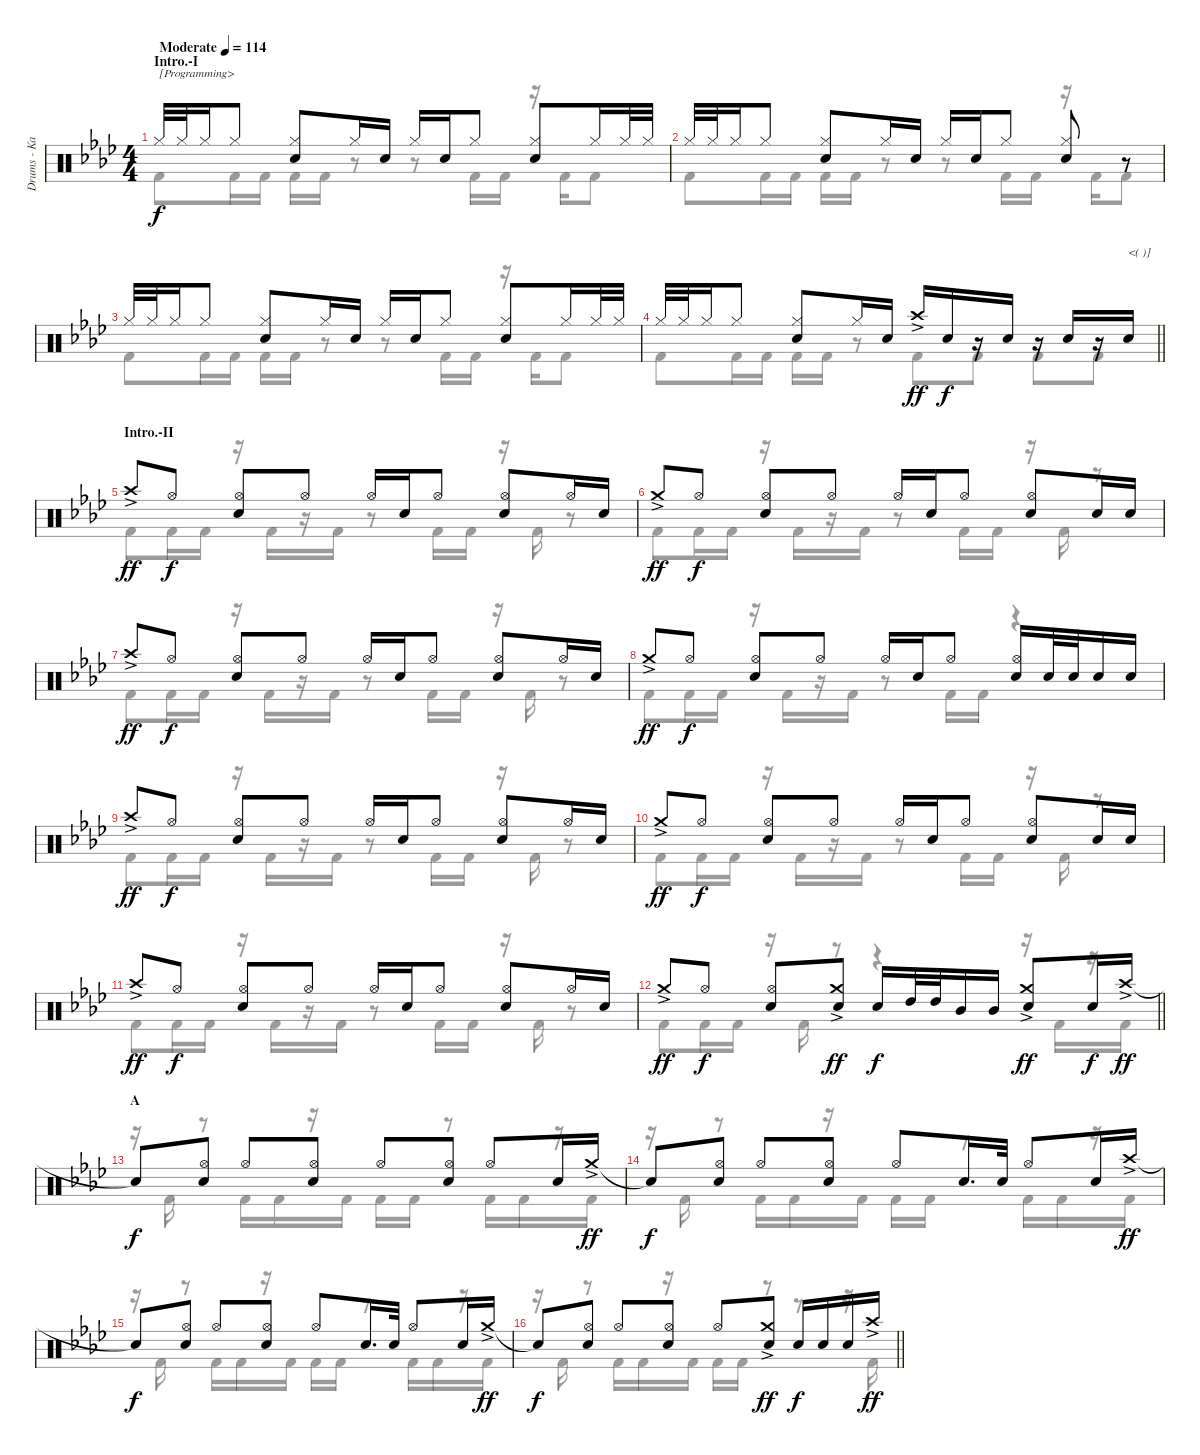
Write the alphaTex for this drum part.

\track ("Drums - Kai" "Drums - Ka") {instrument percussion}
\staff {score}
\articulation defaults
\voice
\ts (4 4)
\section ("" "Intro.-I")
\tempo (114 "Moderate")
\clef neutral
\ks ab "Hi-Hat (closed)".32{txt "[Programming>" dy f} "Hi-Hat (closed)".32 "Hi-Hat (closed)".16 "Hi-Hat (closed)".8
("Hi-Hat (closed)" "Snare (hit) 2").8 "Hi-Hat (closed)".16 "Snare (hit) 2".16 "Hi-Hat (closed)".16 "Snare (hit) 2".16 "Hi-Hat (closed)".8 ("Hi-Hat (closed)" "Snare (hit) 2").8 "Hi-Hat (closed)".16 "Hi-Hat (closed)".32 "Hi-Hat (closed)".32 |
"Hi-Hat (closed)".32 "Hi-Hat (closed)".32 "Hi-Hat (closed)".16 "Hi-Hat (closed)".8 ("Hi-Hat (closed)" "Snare (hit) 2").8 "Hi-Hat (closed)".16 "Snare (hit) 2".16 "Hi-Hat (closed)".16 "Snare (hit) 2".16 "Hi-Hat (closed)".8 ("Hi-Hat (closed)" "Snare (hit) 2").8 r.8 |
"Hi-Hat (closed)".32 "Hi-Hat (closed)".32 "Hi-Hat (closed)".16 "Hi-Hat (closed)".8 ("Hi-Hat (closed)" "Snare (hit) 2").8 "Hi-Hat (closed)".16 "Snare (hit) 2".16 "Hi-Hat (closed)".16 "Snare (hit) 2".16 "Hi-Hat (closed)".8 ("Hi-Hat (closed)" "Snare (hit) 2").8 "Hi-Hat (closed)".16 "Hi-Hat (closed)".32 "Hi-Hat (closed)".32 |
\barLineRight lightlight "Hi-Hat (closed)".32 "Hi-Hat (closed)".32 "Hi-Hat (closed)".16 "Hi-Hat (closed)".8
("Hi-Hat (closed)" "Snare (hit) 2").8 "Hi-Hat (closed)".16 "Snare (hit) 2".16 "Crash high (hit)"{ac}.16{dy ff} "Snare (hit) 2".16{dy f} r.16 "Snare (hit) 2".16 r.16 "Snare (hit) 2".16 r.16 "Snare (hit) 2".16{txt "<( )]"} |
\section ("" "Intro.-II")
"Crash high (hit)"{ac}.8{dy ff} "Hi-Hat (open)".8{dy f} ("Hi-Hat (open)" "Snare (hit) 2").8 "Hi-Hat (open)".8 "Hi-Hat (open)".16 "Snare (hit) 2".16 "Hi-Hat (open)".8 ("Hi-Hat (open)" "Snare (hit) 2").8 "Hi-Hat (open)".16 "Snare (hit) 2".16 |
"Crash medium (hit)"{ac}.8{dy ff} "Hi-Hat (open)".8{dy f} ("Hi-Hat (open)" "Snare (hit) 2").8 "Hi-Hat (open)".8 "Hi-Hat (open)".16 "Snare (hit) 2".16 "Hi-Hat (open)".8 ("Hi-Hat (open)" "Snare (hit) 2").8 "Snare (hit) 2".16 "Snare (hit) 2".16 |
"Crash high (hit)"{ac}.8{dy ff} "Hi-Hat (open)".8{dy f} ("Hi-Hat (open)" "Snare (hit) 2").8 "Hi-Hat (open)".8 "Hi-Hat (open)".16 "Snare (hit) 2".16 "Hi-Hat (open)".8 ("Hi-Hat (open)" "Snare (hit) 2").8 "Hi-Hat (open)".16 "Snare (hit) 2".16 |
"Crash medium (hit)"{ac}.8{dy ff} "Hi-Hat (open)".8{dy f} ("Hi-Hat (open)" "Snare (hit) 2").8 "Hi-Hat (open)".8 "Hi-Hat (open)".16 "Snare (hit) 2".16 "Hi-Hat (open)".8 ("Hi-Hat (open)" "Snare (hit) 2").16 "Snare (hit) 2".32 "Snare (hit) 2".32 "Snare (hit) 2".16 "Snare (hit) 2".16 |
"Crash high (hit)"{ac}.8{dy ff} "Hi-Hat (open)".8{dy f} ("Hi-Hat (open)" "Snare (hit) 2").8 "Hi-Hat (open)".8 "Hi-Hat (open)".16 "Snare (hit) 2".16 "Hi-Hat (open)".8 ("Hi-Hat (open)" "Snare (hit) 2").8 "Hi-Hat (open)".16 "Snare (hit) 2".16 |
"Crash medium (hit)"{ac}.8{dy ff} "Hi-Hat (open)".8{dy f} ("Hi-Hat (open)" "Snare (hit) 2").8 "Hi-Hat (open)".8 "Hi-Hat (open)".16 "Snare (hit) 2".16 "Hi-Hat (open)".8 ("Hi-Hat (open)" "Snare (hit) 2").8 "Snare (hit) 2".16 "Snare (hit) 2".16 |
"Crash high (hit)"{ac}.8{dy ff} "Hi-Hat (open)".8{dy f} ("Hi-Hat (open)" "Snare (hit) 2").8 "Hi-Hat (open)".8 "Hi-Hat (open)".16 "Snare (hit) 2".16 "Hi-Hat (open)".8 ("Hi-Hat (open)" "Snare (hit) 2").8 "Hi-Hat (open)".16 "Snare (hit) 2".16 |
\barLineRight lightlight "Crash medium (hit)"{ac}.8{dy ff} "Hi-Hat (open)".8{dy f}
("Hi-Hat (open)" "Snare (hit) 2").8 ("Crash medium (hit)"{ac} "Snare (hit) 2").8{dy ff} "Snare (hit) 2".16{dy f} "High Tom (hit)".32 "High Tom (hit)".32 "Mid Tom (hit)".16 "Mid Tom (hit)".16 ("Crash medium (hit)"{ac} "Snare (hit) 2").8{dy ff} "Snare (hit) 2".16{dy f} "Crash high (hit)"{ac}.16{dy ff} |
\section ("" "A")
"Snare (hit)"{t}.8{dy f} ("Hi-Hat (open)" "Snare (hit) 2").8 "Hi-Hat (open)".8 ("Hi-Hat (open)" "Snare (hit) 2").8 "Hi-Hat (open)".8 ("Hi-Hat (open)" "Snare (hit) 2").8 "Hi-Hat (open)".8 "Snare (hit) 2".16 "Crash medium (hit)"{ac}.16{dy ff} |
"Snare (hit)"{t}.8{dy f} ("Hi-Hat (open)" "Snare (hit) 2").8 "Hi-Hat (open)".8 ("Hi-Hat (open)" "Snare (hit) 2").8 "Hi-Hat (open)".8 "Snare (hit) 2".16{d} "Snare (hit) 2".32 "Hi-Hat (open)".8 "Snare (hit) 2".16 "Crash high (hit)"{ac}.16{dy ff} |
"Snare (hit)"{t}.8{dy f} ("Hi-Hat (open)" "Snare (hit) 2").8 "Hi-Hat (open)".8 ("Hi-Hat (open)" "Snare (hit) 2").8 "Hi-Hat (open)".8 "Snare (hit) 2".16{d} "Snare (hit) 2".32 "Hi-Hat (open)".8 "Snare (hit) 2".16 "Crash medium (hit)"{ac}.16{dy ff} |
\barLineRight lightlight "Snare (hit)"{t}.8{dy f}
("Hi-Hat (open)" "Snare (hit) 2").8 "Hi-Hat (open)".8 ("Hi-Hat (open)" "Snare (hit) 2").8 "Hi-Hat (open)".8 ("Crash medium (hit)"{ac} "Snare (hit) 2").8{dy ff} "Snare (hit) 2".16{dy f} "Snare (hit) 2".16 "Snare (hit) 2".16 "Crash high (hit)"{ac}.16{dy ff}
\voice
\clef neutral
\ottava regular
\simile none
\ks ab "Kick (hit) 2".8{dy f} "Kick (hit) 2".16 "Kick (hit) 2".16 "Kick (hit) 2".16 "Kick (hit) 2".16
r.8 r.8 "Kick (hit) 2".16 "Kick (hit) 2".16 r.16 "Kick (hit) 2".16 "Kick (hit) 2".8 |
"Kick (hit) 2".8 "Kick (hit) 2".16 "Kick (hit) 2".16 "Kick (hit) 2".16 "Kick (hit) 2".16 r.8 r.8 "Kick (hit) 2".16 "Kick (hit) 2".16 r.16 "Kick (hit) 2".16 "Kick (hit) 2".8 |
"Kick (hit) 2".8 "Kick (hit) 2".16 "Kick (hit) 2".16 "Kick (hit) 2".16 "Kick (hit) 2".16 r.8 r.8 "Kick (hit) 2".16 "Kick (hit) 2".16 r.16 "Kick (hit) 2".16 "Kick (hit) 2".8 |
\barLineRight lightlight "Kick (hit) 2".8 "Kick (hit) 2".16 "Kick (hit) 2".16 "Kick (hit) 2".16 "Kick (hit) 2".16
r.8 "Kick (hit) 2".8 "Kick (hit) 2".8 "Kick (hit) 2".8 "Kick (hit) 2".8 |
"Kick (hit) 2".8 "Kick (hit) 2".16 "Kick (hit) 2".16 r.16 "Kick (hit) 2".16 r.16 "Kick (hit) 2".16 r.8 "Kick (hit) 2".16 "Kick (hit) 2".16 r.16 "Kick (hit) 2".16 r.8 |
"Kick (hit) 2".8 "Kick (hit) 2".16 "Kick (hit) 2".16 r.16 "Kick (hit) 2".16 r.16 "Kick (hit) 2".16 r.8 "Kick (hit) 2".16 "Kick (hit) 2".16 r.16 "Kick (hit) 2".16 r.8 |
"Kick (hit) 2".8 "Kick (hit) 2".16 "Kick (hit) 2".16 r.16 "Kick (hit) 2".16 r.16 "Kick (hit) 2".16 r.8 "Kick (hit) 2".16 "Kick (hit) 2".16 r.16 "Kick (hit) 2".16 r.8 |
"Kick (hit) 2".8 "Kick (hit) 2".16 "Kick (hit) 2".16 r.16 "Kick (hit) 2".16 r.16 "Kick (hit) 2".16 r.8 "Kick (hit) 2".16 "Kick (hit) 2".16 r.4 |
"Kick (hit) 2".8 "Kick (hit) 2".16 "Kick (hit) 2".16 r.16 "Kick (hit) 2".16 r.16 "Kick (hit) 2".16 r.8 "Kick (hit) 2".16 "Kick (hit) 2".16 r.16 "Kick (hit) 2".16 r.8 |
"Kick (hit) 2".8 "Kick (hit) 2".16 "Kick (hit) 2".16 r.16 "Kick (hit) 2".16 r.16 "Kick (hit) 2".16 r.8 "Kick (hit) 2".16 "Kick (hit) 2".16 r.16 "Kick (hit) 2".16 r.8 |
"Kick (hit) 2".8 "Kick (hit) 2".16 "Kick (hit) 2".16 r.16 "Kick (hit) 2".16 r.16 "Kick (hit) 2".16 r.8 "Kick (hit) 2".16 "Kick (hit) 2".16 r.16 "Kick (hit) 2".16 r.8 |
\barLineRight lightlight "Kick (hit) 2".8 "Kick (hit) 2".16 "Kick (hit) 2".16
r.16 "Kick (hit) 2".16 r.8 r.4 r.16 "Kick (hit) 2".16 r.16 "Kick (hit) 2".16 |
r.16 "Kick (hit) 2".16 r.8 "Kick (hit) 2".16 "Kick (hit) 2".16 r.16 "Kick (hit) 2".16 "Kick (hit) 2".16 "Kick (hit) 2".16 r.8 "Kick (hit) 2".16 "Kick (hit) 2".16 r.16 "Kick (hit) 2".16 |
r.16 "Kick (hit) 2".16 r.8 "Kick (hit) 2".16 "Kick (hit) 2".16 r.16 "Kick (hit) 2".16 "Kick (hit) 2".16 "Kick (hit) 2".16 r.8 "Kick (hit) 2".16 "Kick (hit) 2".16 r.16 "Kick (hit) 2".16 |
r.16 "Kick (hit) 2".16 r.8 "Kick (hit) 2".16 "Kick (hit) 2".16 r.16 "Kick (hit) 2".16 "Kick (hit) 2".16 "Kick (hit) 2".16 r.8 "Kick (hit) 2".16 "Kick (hit) 2".16 r.16 "Kick (hit) 2".16 |
\barLineRight lightlight
r.16 "Kick (hit) 2".16 r.8 "Kick (hit) 2".16 "Kick (hit) 2".16 r.16 "Kick (hit) 2".16 "Kick (hit) 2".16 "Kick (hit) 2".16 r.8 r.8 r.16 "Kick (hit) 2".16
